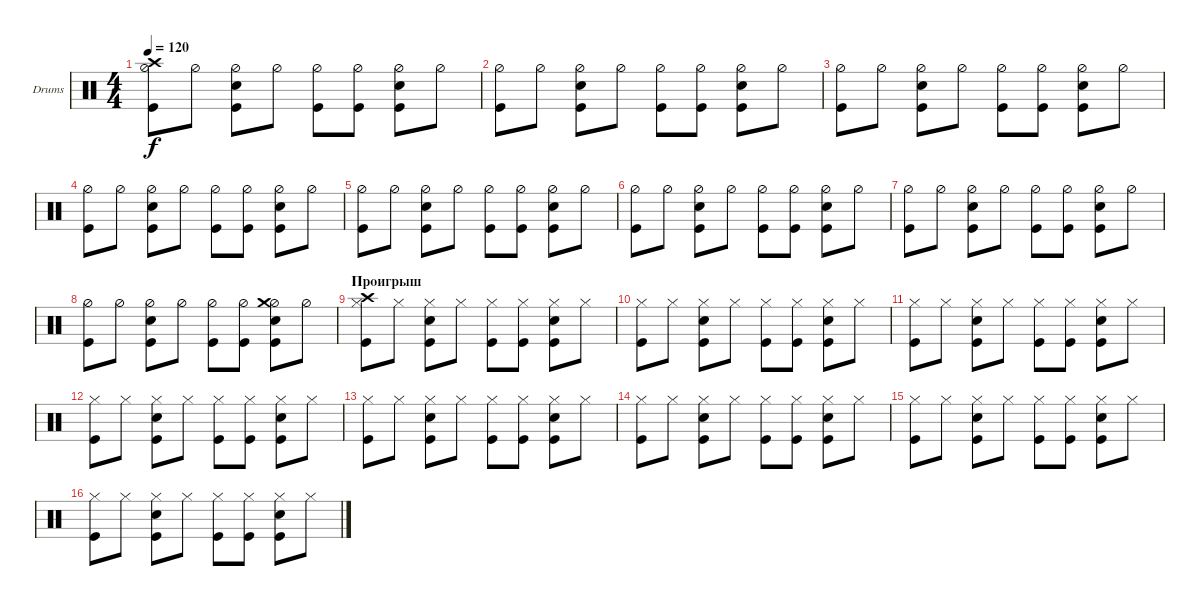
\defaultSystemsLayout 4
\bracketExtendMode groupsimilarinstruments
\firstSystemTrackNameOrientation horizontal
\otherSystemsTrackNameOrientation horizontal
\track ("Drumkit" "Drums") {instrument percussion}
\staff {score}
\articulation defaults
\ts (4 4)
\tempo 120
\clef neutral
\ks c
("Hi-Hat (half)" "Kick (hit)" "Crash high (hit)").8{dy f} "Hi-Hat (half)".8 ("Hi-Hat (half)" "Snare (hit) 2" "Kick (hit)").8 "Hi-Hat (half)".8 ("Hi-Hat (half)" "Kick (hit)").8 ("Hi-Hat (half)" "Kick (hit)").8 ("Hi-Hat (half)" "Snare (hit) 2" "Kick (hit)").8 "Hi-Hat (half)".8 |
("Hi-Hat (half)" "Kick (hit)").8 "Hi-Hat (half)".8 ("Hi-Hat (half)" "Snare (hit) 2" "Kick (hit)").8 "Hi-Hat (half)".8 ("Hi-Hat (half)" "Kick (hit)").8 ("Hi-Hat (half)" "Kick (hit)").8 ("Hi-Hat (half)" "Snare (hit) 2" "Kick (hit)").8 "Hi-Hat (half)".8 |
("Hi-Hat (half)" "Kick (hit)").8 "Hi-Hat (half)".8 ("Hi-Hat (half)" "Snare (hit) 2" "Kick (hit)").8 "Hi-Hat (half)".8 ("Hi-Hat (half)" "Kick (hit)").8 ("Hi-Hat (half)" "Kick (hit)").8 ("Hi-Hat (half)" "Snare (hit) 2" "Kick (hit)").8 "Hi-Hat (half)".8 |
("Hi-Hat (half)" "Kick (hit)").8 "Hi-Hat (half)".8 ("Hi-Hat (half)" "Snare (hit) 2" "Kick (hit)").8 "Hi-Hat (half)".8 ("Hi-Hat (half)" "Kick (hit)").8 ("Hi-Hat (half)" "Kick (hit)").8 ("Hi-Hat (half)" "Snare (hit) 2" "Kick (hit)").8 "Hi-Hat (half)".8 |
("Hi-Hat (half)" "Kick (hit)").8 "Hi-Hat (half)".8 ("Hi-Hat (half)" "Snare (hit) 2" "Kick (hit)").8 "Hi-Hat (half)".8 ("Hi-Hat (half)" "Kick (hit)").8 ("Hi-Hat (half)" "Kick (hit)").8 ("Hi-Hat (half)" "Snare (hit) 2" "Kick (hit)").8 "Hi-Hat (half)".8 |
("Hi-Hat (half)" "Kick (hit)").8 "Hi-Hat (half)".8 ("Hi-Hat (half)" "Snare (hit) 2" "Kick (hit)").8 "Hi-Hat (half)".8 ("Hi-Hat (half)" "Kick (hit)").8 ("Hi-Hat (half)" "Kick (hit)").8 ("Hi-Hat (half)" "Snare (hit) 2" "Kick (hit)").8 "Hi-Hat (half)".8 |
("Hi-Hat (half)" "Kick (hit)").8 "Hi-Hat (half)".8 ("Hi-Hat (half)" "Snare (hit) 2" "Kick (hit)").8 "Hi-Hat (half)".8 ("Hi-Hat (half)" "Kick (hit)").8 ("Hi-Hat (half)" "Kick (hit)").8 ("Hi-Hat (half)" "Snare (hit) 2" "Kick (hit)").8 "Hi-Hat (half)".8 |
("Hi-Hat (half)" "Kick (hit)").8 "Hi-Hat (half)".8 ("Hi-Hat (half)" "Snare (hit) 2" "Kick (hit)").8 "Hi-Hat (half)".8 ("Hi-Hat (half)" "Kick (hit)").8 ("Hi-Hat (half)" "Kick (hit)").8 ("Hi-Hat (half)" "Snare (hit) 2" "Kick (hit)" "Crash medium (hit)").8 "Hi-Hat (half)".8 |
\section ("" "Проигрыш")
("Hi-Hat (closed)" "Kick (hit)" "Crash high (hit)").8 "Hi-Hat (closed)".8 ("Hi-Hat (closed)" "Snare (hit) 2" "Kick (hit)").8 "Hi-Hat (closed)".8 ("Hi-Hat (closed)" "Kick (hit)").8 ("Hi-Hat (closed)" "Kick (hit)").8 ("Hi-Hat (closed)" "Snare (hit) 2" "Kick (hit)").8 "Hi-Hat (closed)".8 |
("Hi-Hat (closed)" "Kick (hit)").8 "Hi-Hat (closed)".8 ("Hi-Hat (closed)" "Snare (hit) 2" "Kick (hit)").8 "Hi-Hat (closed)".8 ("Hi-Hat (closed)" "Kick (hit)").8 ("Hi-Hat (closed)" "Kick (hit)").8 ("Hi-Hat (closed)" "Snare (hit) 2" "Kick (hit)").8 "Hi-Hat (closed)".8 |
("Hi-Hat (closed)" "Kick (hit)").8 "Hi-Hat (closed)".8 ("Hi-Hat (closed)" "Snare (hit) 2" "Kick (hit)").8 "Hi-Hat (closed)".8 ("Hi-Hat (closed)" "Kick (hit)").8 ("Hi-Hat (closed)" "Kick (hit)").8 ("Hi-Hat (closed)" "Snare (hit) 2" "Kick (hit)").8 "Hi-Hat (closed)".8 |
("Hi-Hat (closed)" "Kick (hit)").8 "Hi-Hat (closed)".8 ("Hi-Hat (closed)" "Snare (hit) 2" "Kick (hit)").8 "Hi-Hat (closed)".8 ("Hi-Hat (closed)" "Kick (hit)").8 ("Hi-Hat (closed)" "Kick (hit)").8 ("Hi-Hat (closed)" "Snare (hit) 2" "Kick (hit)").8 "Hi-Hat (closed)".8 |
("Hi-Hat (closed)" "Kick (hit)").8 "Hi-Hat (closed)".8 ("Hi-Hat (closed)" "Snare (hit) 2" "Kick (hit)").8 "Hi-Hat (closed)".8 ("Hi-Hat (closed)" "Kick (hit)").8 ("Hi-Hat (closed)" "Kick (hit)").8 ("Hi-Hat (closed)" "Snare (hit) 2" "Kick (hit)").8 "Hi-Hat (closed)".8 |
("Hi-Hat (closed)" "Kick (hit)").8 "Hi-Hat (closed)".8 ("Hi-Hat (closed)" "Snare (hit) 2" "Kick (hit)").8 "Hi-Hat (closed)".8 ("Hi-Hat (closed)" "Kick (hit)").8 ("Hi-Hat (closed)" "Kick (hit)").8 ("Hi-Hat (closed)" "Snare (hit) 2" "Kick (hit)").8 "Hi-Hat (closed)".8 |
("Hi-Hat (closed)" "Kick (hit)").8 "Hi-Hat (closed)".8 ("Hi-Hat (closed)" "Snare (hit) 2" "Kick (hit)").8 "Hi-Hat (closed)".8 ("Hi-Hat (closed)" "Kick (hit)").8 ("Hi-Hat (closed)" "Kick (hit)").8 ("Hi-Hat (closed)" "Snare (hit) 2" "Kick (hit)").8 "Hi-Hat (closed)".8 |
("Hi-Hat (closed)" "Kick (hit)").8 "Hi-Hat (closed)".8 ("Hi-Hat (closed)" "Snare (hit) 2" "Kick (hit)").8 "Hi-Hat (closed)".8 ("Hi-Hat (closed)" "Kick (hit)").8 ("Hi-Hat (closed)" "Kick (hit)").8 ("Hi-Hat (closed)" "Snare (hit) 2" "Kick (hit)").8 "Hi-Hat (closed)".8
